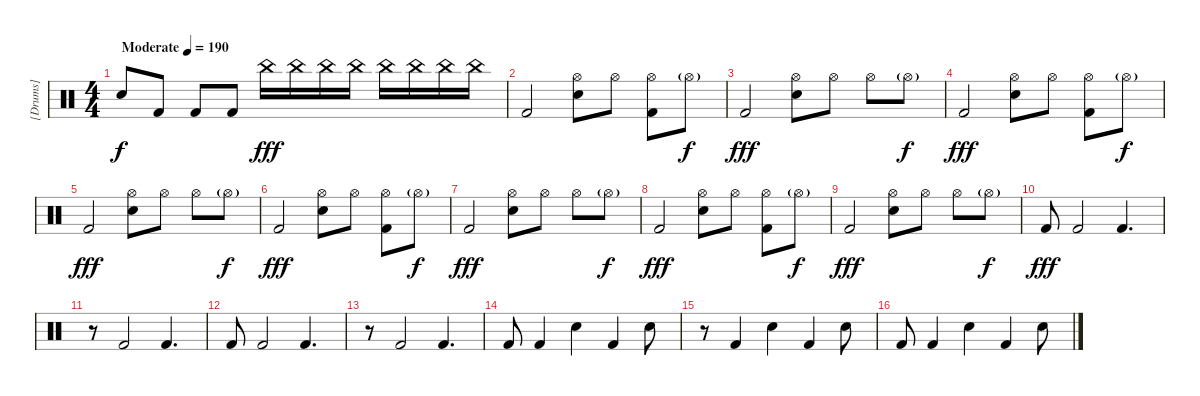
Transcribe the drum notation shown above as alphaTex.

\track ("[Drums]" "[Drums]") {instrument percussion}
\staff {score}
\articulation defaults
\ts (4 4)
\tempo (190 "Moderate")
\clef neutral
\ks c "Electric Snare (hit)".8{dy f} "Kick (hit) 2".8 "Kick (hit) 2".8 "Kick (hit) 2".8 "China (hit)".16{dy fff} "China (hit)".16 "China (hit)".16 "China (hit)".16 "China (hit)".16 "China (hit)".16 "China (hit)".16 "China (hit)".16
|
"Kick (hit) 2".2 ("Hi-Hat (open)" "Electric Snare (hit)").8 "Hi-Hat (open)".8 ("Hi-Hat (open)" "Kick (hit) 2").8 "Hi-Hat (open)"{g}.8{dy f} |
"Kick (hit) 2".2{dy fff} ("Hi-Hat (open)" "Electric Snare (hit)").8 "Hi-Hat (open)".8 "Hi-Hat (open)".8 "Hi-Hat (open)"{g}.8{dy f} |
"Kick (hit) 2".2{dy fff} ("Hi-Hat (open)" "Electric Snare (hit)").8 "Hi-Hat (open)".8 ("Hi-Hat (open)" "Kick (hit) 2").8 "Hi-Hat (open)"{g}.8{dy f} |
"Kick (hit) 2".2{dy fff} ("Hi-Hat (open)" "Electric Snare (hit)").8 "Hi-Hat (open)".8 "Hi-Hat (open)".8 "Hi-Hat (open)"{g}.8{dy f} |
"Kick (hit) 2".2{dy fff} ("Hi-Hat (open)" "Electric Snare (hit)").8 "Hi-Hat (open)".8 ("Hi-Hat (open)" "Kick (hit) 2").8 "Hi-Hat (open)"{g}.8{dy f} |
"Kick (hit) 2".2{dy fff} ("Hi-Hat (open)" "Electric Snare (hit)").8 "Hi-Hat (open)".8 "Hi-Hat (open)".8 "Hi-Hat (open)"{g}.8{dy f} |
"Kick (hit) 2".2{dy fff} ("Hi-Hat (open)" "Electric Snare (hit)").8 "Hi-Hat (open)".8 ("Hi-Hat (open)" "Kick (hit) 2").8 "Hi-Hat (open)"{g}.8{dy f} |
"Kick (hit) 2".2{dy fff} ("Hi-Hat (open)" "Electric Snare (hit)").8 "Hi-Hat (open)".8 "Hi-Hat (open)".8 "Hi-Hat (open)"{g}.8{dy f} |
"Kick (hit) 2".8{dy fff} "Kick (hit) 2".2 "Kick (hit) 2".4{d} |
r.8 "Kick (hit) 2".2 "Kick (hit) 2".4{d} |
"Kick (hit) 2".8 "Kick (hit) 2".2 "Kick (hit) 2".4{d} |
r.8 "Kick (hit) 2".2 "Kick (hit) 2".4{d} |
"Kick (hit) 2".8 "Kick (hit) 2".4 "Electric Snare (hit)".4 "Kick (hit) 2".4 "Electric Snare (hit)".8 |
r.8 "Kick (hit) 2".4 "Electric Snare (hit)".4 "Kick (hit) 2".4 "Electric Snare (hit)".8 |
"Kick (hit) 2".8 "Kick (hit) 2".4 "Electric Snare (hit)".4 "Kick (hit) 2".4 "Electric Snare (hit)".8
